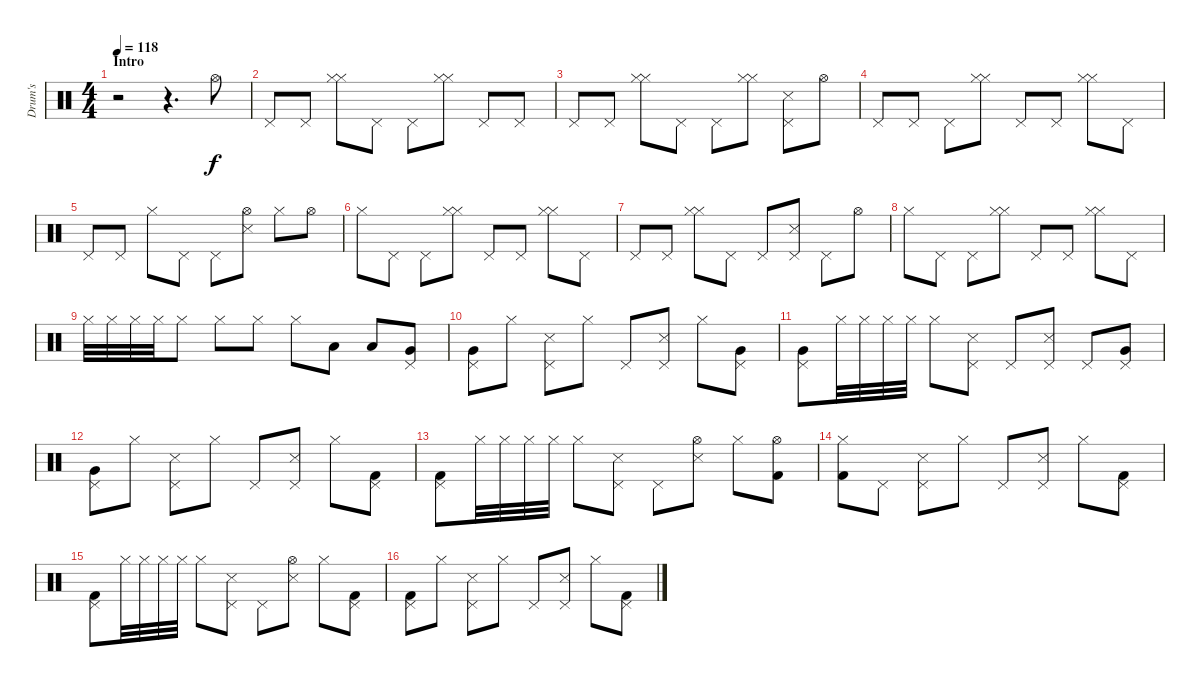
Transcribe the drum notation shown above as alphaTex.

\track ("Drum's" "Drum's") {instrument percussion}
\staff {score}
\articulation defaults
\ts (4 4)
\section ("" "Intro")
\tempo 118
\clef neutral
\ks c
r.2{dy f} r.4{d} "Hi-Hat (open)".8 |
"Pedal Hi-Hat (hit)".8 "Pedal Hi-Hat (hit)".8 ("Hi-Hat (closed)" "Hi-Hat (closed)").8 "Pedal Hi-Hat (hit)".8 "Pedal Hi-Hat (hit)".8 ("Hi-Hat (closed)" "Hi-Hat (closed)").8 "Pedal Hi-Hat (hit)".8 "Pedal Hi-Hat (hit)".8 |
"Pedal Hi-Hat (hit)".8 "Pedal Hi-Hat (hit)".8 ("Hi-Hat (closed)" "Hi-Hat (closed)").8 "Pedal Hi-Hat (hit)".8 "Pedal Hi-Hat (hit)".8 ("Hi-Hat (closed)" "Hi-Hat (closed)").8 ("Pedal Hi-Hat (hit)" "Snare (side stick) 3").8 "Hi-Hat (open)".8 |
"Pedal Hi-Hat (hit)".8 "Pedal Hi-Hat (hit)".8 "Pedal Hi-Hat (hit)".8 ("Hi-Hat (closed)" "Hi-Hat (closed)").8 "Pedal Hi-Hat (hit)".8 "Pedal Hi-Hat (hit)".8 ("Hi-Hat (closed)" "Hi-Hat (closed)").8 "Pedal Hi-Hat (hit)".8 |
"Pedal Hi-Hat (hit)".8 "Pedal Hi-Hat (hit)".8 "Hi-Hat (closed)".8 "Pedal Hi-Hat (hit)".8 "Pedal Hi-Hat (hit)".8 ("Hi-Hat (open)" "Snare (side stick) 3").8 "Hi-Hat (closed)".8 "Hi-Hat (open)".8 |
"Hi-Hat (closed)".8 "Pedal Hi-Hat (hit)".8 "Pedal Hi-Hat (hit)".8 ("Hi-Hat (closed)" "Hi-Hat (closed)").8 "Pedal Hi-Hat (hit)".8 "Pedal Hi-Hat (hit)".8 ("Hi-Hat (closed)" "Hi-Hat (closed)").8 "Pedal Hi-Hat (hit)".8 |
"Pedal Hi-Hat (hit)".8 "Pedal Hi-Hat (hit)".8 ("Hi-Hat (closed)" "Hi-Hat (closed)").8 "Pedal Hi-Hat (hit)".8 "Pedal Hi-Hat (hit)".8 ("Pedal Hi-Hat (hit)" "Snare (side stick) 3").8 "Pedal Hi-Hat (hit)".8 "Hi-Hat (open)".8 |
"Hi-Hat (closed)".8 "Pedal Hi-Hat (hit)".8 "Pedal Hi-Hat (hit)".8 ("Hi-Hat (closed)" "Hi-Hat (closed)").8 "Pedal Hi-Hat (hit)".8 "Pedal Hi-Hat (hit)".8 ("Hi-Hat (closed)" "Hi-Hat (closed)").8 "Pedal Hi-Hat (hit)".8 |
"Hi-Hat (closed)".32{volume 14} "Hi-Hat (closed)".32 "Hi-Hat (closed)".32 "Hi-Hat (closed)".32 "Hi-Hat (closed)".8 "Hi-Hat (closed)".8 "Hi-Hat (closed)".8 "Hi-Hat (closed)".8 "Low Floor Tom (hit)".8 "Low Floor Tom (hit)".8 ("Pedal Hi-Hat (hit)" "Very Low Tom (hit)").8 |
("Pedal Hi-Hat (hit)" "Very Low Tom (hit)").8 "Hi-Hat (closed)".8 ("Pedal Hi-Hat (hit)" "Snare (side stick) 3").8 "Hi-Hat (closed)".8 "Pedal Hi-Hat (hit)".8 ("Pedal Hi-Hat (hit)" "Snare (side stick) 3").8 "Hi-Hat (closed)".8 ("Pedal Hi-Hat (hit)" "Very Low Tom (hit)").8 |
("Pedal Hi-Hat (hit)" "Very Low Tom (hit)").8 "Hi-Hat (closed)".32 "Hi-Hat (closed)".32 "Hi-Hat (closed)".32 "Hi-Hat (closed)".32 "Hi-Hat (closed)".8 ("Pedal Hi-Hat (hit)" "Snare (side stick) 3").8 "Pedal Hi-Hat (hit)".8 ("Pedal Hi-Hat (hit)" "Snare (side stick) 3").8 "Pedal Hi-Hat (hit)".8 ("Pedal Hi-Hat (hit)" "Very Low Tom (hit)").8 |
("Pedal Hi-Hat (hit)" "Very Low Tom (hit)").8 "Hi-Hat (closed)".8 ("Pedal Hi-Hat (hit)" "Snare (side stick) 3").8 "Hi-Hat (closed)".8 "Pedal Hi-Hat (hit)".8 ("Pedal Hi-Hat (hit)" "Snare (side stick) 3").8 "Hi-Hat (closed)".8 ("Pedal Hi-Hat (hit)" "Kick (hit) 2").8 |
("Pedal Hi-Hat (hit)" "Kick (hit) 2").8 "Hi-Hat (closed)".32 "Hi-Hat (closed)".32 "Hi-Hat (closed)".32 "Hi-Hat (closed)".32 "Hi-Hat (closed)".8 ("Pedal Hi-Hat (hit)" "Snare (side stick) 3").8 "Pedal Hi-Hat (hit)".8 ("Hi-Hat (open)" "Snare (side stick) 3").8 "Hi-Hat (closed)".8 ("Hi-Hat (open)" "Kick (hit) 2").8 |
("Hi-Hat (closed)" "Kick (hit) 2").8 "Pedal Hi-Hat (hit)".8 ("Pedal Hi-Hat (hit)" "Snare (side stick) 3").8 "Hi-Hat (closed)".8 "Pedal Hi-Hat (hit)".8 ("Pedal Hi-Hat (hit)" "Snare (side stick) 3").8 "Hi-Hat (closed)".8 ("Pedal Hi-Hat (hit)" "Kick (hit) 2").8 |
("Pedal Hi-Hat (hit)" "Kick (hit) 2").8 "Hi-Hat (closed)".32 "Hi-Hat (closed)".32 "Hi-Hat (closed)".32 "Hi-Hat (closed)".32 "Hi-Hat (closed)".8 ("Pedal Hi-Hat (hit)" "Snare (side stick) 3").8 "Pedal Hi-Hat (hit)".8 ("Hi-Hat (open)" "Snare (side stick) 3").8 "Hi-Hat (closed)".8 ("Pedal Hi-Hat (hit)" "Kick (hit) 2").8 |
("Pedal Hi-Hat (hit)" "Kick (hit) 2").8 "Hi-Hat (closed)".8 ("Pedal Hi-Hat (hit)" "Snare (side stick) 3").8 "Hi-Hat (closed)".8 "Pedal Hi-Hat (hit)".8 ("Pedal Hi-Hat (hit)" "Snare (side stick) 3").8 "Hi-Hat (closed)".8 ("Pedal Hi-Hat (hit)" "Kick (hit) 2").8
